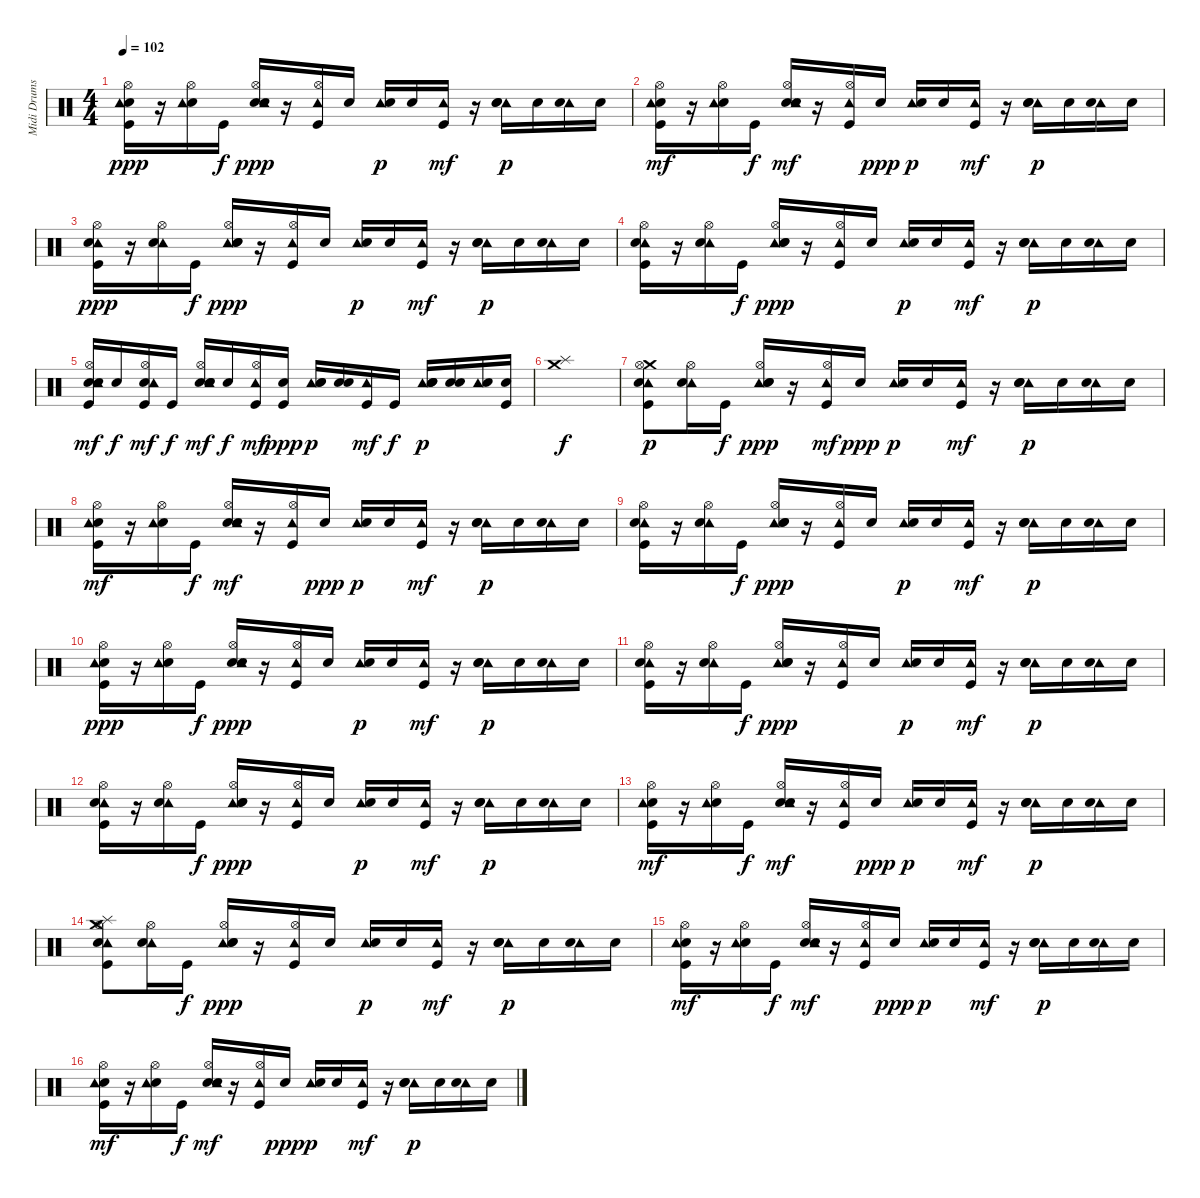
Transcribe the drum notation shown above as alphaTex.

\track ("Midi Drums" "Midi Drums") {instrument percussion}
\staff {score}
\articulation defaults
\ts (4 4)
\tempo 102
\clef neutral
\ks c
("Electric Snare (hit)" "Tambourine (hit)" "Hi-Hat (open)" "Kick (hit)").16{dy ppp} r.16 ("Electric Snare (hit)" "Tambourine (hit)" "Hi-Hat (open)").16 "Kick (hit)".16{dy f} ("Electric Snare (hit)" "Tambourine (hit)" "Hi-Hat (open)" "Snare (hit) 2").16{dy ppp} r.16 ("Tambourine (hit)" "Hi-Hat (open)" "Kick (hit)").16 "Electric Snare (hit)".16 ("Tambourine (hit)" "Electric Snare (hit)").16{dy p} "Electric Snare (hit)".16 ("Tambourine (hit)" "Kick (hit)").16{dy mf} r.16 ("Tambourine (hit)" "Electric Snare (hit)" "Snare (hit) 2").16{dy p} "Electric Snare (hit)".16 ("Tambourine (hit)" "Electric Snare (hit)").16 "Electric Snare (hit)".16 |
("Electric Snare (hit)" "Hi-Hat (open)" "Kick (hit)" "Tambourine (hit)").16{dy mf} r.16 ("Electric Snare (hit)" "Hi-Hat (open)" "Tambourine (hit)").16 "Kick (hit)".16{dy f} ("Electric Snare (hit)" "Hi-Hat (open)" "Snare (hit) 2" "Tambourine (hit)").16{dy mf} r.16 ("Hi-Hat (open)" "Kick (hit)" "Tambourine (hit)").16 "Electric Snare (hit)".16{dy ppp} ("Tambourine (hit)" "Electric Snare (hit)").16{dy p} "Electric Snare (hit)".16 ("Kick (hit)" "Tambourine (hit)").16{dy mf} r.16 ("Tambourine (hit)" "Electric Snare (hit)" "Snare (hit) 2").16{dy p} "Electric Snare (hit)".16 ("Tambourine (hit)" "Electric Snare (hit)").16 "Electric Snare (hit)".16 |
("Tambourine (hit)" "Kick (hit)" "Electric Snare (hit)" "Hi-Hat (open)").16{dy ppp} r.16 ("Tambourine (hit)" "Electric Snare (hit)" "Hi-Hat (open)").16 "Kick (hit)".16{dy f} ("Tambourine (hit)" "Snare (hit) 2" "Electric Snare (hit)" "Hi-Hat (open)").16{dy ppp} r.16 ("Tambourine (hit)" "Kick (hit)" "Hi-Hat (open)").16 "Electric Snare (hit)".16 ("Tambourine (hit)" "Electric Snare (hit)").16{dy p} "Electric Snare (hit)".16 ("Tambourine (hit)" "Kick (hit)").16{dy mf} r.16 ("Tambourine (hit)" "Electric Snare (hit)" "Snare (hit) 2").16{dy p} "Electric Snare (hit)".16 ("Tambourine (hit)" "Electric Snare (hit)").16 "Electric Snare (hit)".16 |
("Tambourine (hit)" "Kick (hit)" "Hi-Hat (open)" "Electric Snare (hit)").16 r.16 ("Tambourine (hit)" "Hi-Hat (open)" "Electric Snare (hit)").16 "Kick (hit)".16{dy f} ("Tambourine (hit)" "Snare (hit) 2" "Hi-Hat (open)" "Electric Snare (hit)").16{dy ppp} r.16 ("Tambourine (hit)" "Kick (hit)" "Hi-Hat (open)").16 "Electric Snare (hit)".16 ("Tambourine (hit)" "Electric Snare (hit)").16{dy p} "Electric Snare (hit)".16 ("Tambourine (hit)" "Kick (hit)").16{dy mf} r.16 ("Tambourine (hit)" "Electric Snare (hit)" "Snare (hit) 2").16{dy p} "Electric Snare (hit)".16 ("Tambourine (hit)" "Electric Snare (hit)").16 "Electric Snare (hit)".16 |
("Hi-Hat (open)" "Electric Snare (hit)" "Tambourine (hit)" "Kick (hit)" "Snare (hit) 2").16{dy mf} "Snare (hit) 2".16{dy f} ("Kick (hit)" "Hi-Hat (open)" "Electric Snare (hit)" "Tambourine (hit)").16{dy mf} "Kick (hit)".16{dy f} ("Hi-Hat (open)" "Electric Snare (hit)" "Tambourine (hit)" "Snare (hit) 2" "Snare (hit) 2").16{dy mf} "Snare (hit) 2".16{dy f} ("Kick (hit)" "Hi-Hat (open)" "Tambourine (hit)").16{dy mf} ("Kick (hit)" "Electric Snare (hit)").16{dy ppp} ("Tambourine (hit)" "Snare (hit) 2" "Electric Snare (hit)").16{dy p} ("Snare (hit) 2" "Electric Snare (hit)").16 ("Tambourine (hit)" "Kick (hit)").16{dy mf} "Kick (hit)".16{dy f} ("Tambourine (hit)" "Snare (hit) 2" "Electric Snare (hit)" "Snare (hit) 2").16{dy p} ("Snare (hit) 2" "Electric Snare (hit)").16 ("Tambourine (hit)" "Electric Snare (hit)").16 ("Kick (hit)" "Electric Snare (hit)").16 |
("Splash (hit)" "Crash medium (hit)").1{dy f} |
("Crash medium (hit)" "Hi-Hat (open)" "Tambourine (hit)" "Kick (hit)" "Electric Snare (hit)").8{dy p} ("Hi-Hat (open)" "Tambourine (hit)" "Electric Snare (hit)").16 "Kick (hit)".16{dy f} ("Hi-Hat (open)" "Tambourine (hit)" "Snare (hit) 2" "Electric Snare (hit)").16{dy ppp} r.16 ("Hi-Hat (open)" "Tambourine (hit)" "Kick (hit)").16{dy mf} "Electric Snare (hit)".16{dy ppp} ("Tambourine (hit)" "Electric Snare (hit)").16{dy p} "Electric Snare (hit)".16 ("Tambourine (hit)" "Kick (hit)").16{dy mf} r.16 ("Tambourine (hit)" "Electric Snare (hit)" "Snare (hit) 2").16{dy p} "Electric Snare (hit)".16 ("Tambourine (hit)" "Electric Snare (hit)").16 "Electric Snare (hit)".16 |
("Hi-Hat (open)" "Electric Snare (hit)" "Tambourine (hit)" "Kick (hit)").16{dy mf} r.16 ("Hi-Hat (open)" "Electric Snare (hit)" "Tambourine (hit)").16 "Kick (hit)".16{dy f} ("Hi-Hat (open)" "Electric Snare (hit)" "Tambourine (hit)" "Snare (hit) 2").16{dy mf} r.16 ("Hi-Hat (open)" "Tambourine (hit)" "Kick (hit)").16 "Electric Snare (hit)".16{dy ppp} ("Tambourine (hit)" "Electric Snare (hit)").16{dy p} "Electric Snare (hit)".16 ("Tambourine (hit)" "Kick (hit)").16{dy mf} r.16 ("Tambourine (hit)" "Electric Snare (hit)" "Snare (hit) 2").16{dy p} "Electric Snare (hit)".16 ("Tambourine (hit)" "Electric Snare (hit)").16 "Electric Snare (hit)".16 |
("Tambourine (hit)" "Hi-Hat (open)" "Kick (hit)" "Electric Snare (hit)").16 r.16 ("Tambourine (hit)" "Hi-Hat (open)" "Electric Snare (hit)").16 "Kick (hit)".16{dy f} ("Tambourine (hit)" "Hi-Hat (open)" "Snare (hit) 2" "Electric Snare (hit)").16{dy ppp} r.16 ("Tambourine (hit)" "Hi-Hat (open)" "Kick (hit)").16 "Electric Snare (hit)".16 ("Tambourine (hit)" "Electric Snare (hit)").16{dy p} "Electric Snare (hit)".16 ("Tambourine (hit)" "Kick (hit)").16{dy mf} r.16 ("Tambourine (hit)" "Electric Snare (hit)" "Snare (hit) 2").16{dy p} "Electric Snare (hit)".16 ("Tambourine (hit)" "Electric Snare (hit)").16 "Electric Snare (hit)".16 |
("Electric Snare (hit)" "Kick (hit)" "Tambourine (hit)" "Hi-Hat (open)").16{dy ppp} r.16 ("Electric Snare (hit)" "Tambourine (hit)" "Hi-Hat (open)").16 "Kick (hit)".16{dy f} ("Electric Snare (hit)" "Snare (hit) 2" "Tambourine (hit)" "Hi-Hat (open)").16{dy ppp} r.16 ("Kick (hit)" "Tambourine (hit)" "Hi-Hat (open)").16 "Electric Snare (hit)".16 ("Tambourine (hit)" "Electric Snare (hit)").16{dy p} "Electric Snare (hit)".16 ("Kick (hit)" "Tambourine (hit)").16{dy mf} r.16 ("Tambourine (hit)" "Electric Snare (hit)" "Snare (hit) 2").16{dy p} "Electric Snare (hit)".16 ("Tambourine (hit)" "Electric Snare (hit)").16 "Electric Snare (hit)".16 |
("Tambourine (hit)" "Hi-Hat (open)" "Kick (hit)" "Electric Snare (hit)").16 r.16 ("Tambourine (hit)" "Hi-Hat (open)" "Electric Snare (hit)").16 "Kick (hit)".16{dy f} ("Tambourine (hit)" "Hi-Hat (open)" "Snare (hit) 2" "Electric Snare (hit)").16{dy ppp} r.16 ("Tambourine (hit)" "Hi-Hat (open)" "Kick (hit)").16 "Electric Snare (hit)".16 ("Tambourine (hit)" "Electric Snare (hit)").16{dy p} "Electric Snare (hit)".16 ("Tambourine (hit)" "Kick (hit)").16{dy mf} r.16 ("Tambourine (hit)" "Electric Snare (hit)" "Snare (hit) 2").16{dy p} "Electric Snare (hit)".16 ("Tambourine (hit)" "Electric Snare (hit)").16 "Electric Snare (hit)".16 |
("Tambourine (hit)" "Kick (hit)" "Hi-Hat (open)" "Electric Snare (hit)").16 r.16 ("Tambourine (hit)" "Hi-Hat (open)" "Electric Snare (hit)").16 "Kick (hit)".16{dy f} ("Tambourine (hit)" "Snare (hit) 2" "Hi-Hat (open)" "Electric Snare (hit)").16{dy ppp} r.16 ("Tambourine (hit)" "Kick (hit)" "Hi-Hat (open)").16 "Electric Snare (hit)".16 ("Tambourine (hit)" "Electric Snare (hit)").16{dy p} "Electric Snare (hit)".16 ("Tambourine (hit)" "Kick (hit)").16{dy mf} r.16 ("Tambourine (hit)" "Electric Snare (hit)" "Snare (hit) 2").16{dy p} "Electric Snare (hit)".16 ("Tambourine (hit)" "Electric Snare (hit)").16 "Electric Snare (hit)".16 |
("Kick (hit)" "Electric Snare (hit)" "Hi-Hat (open)" "Tambourine (hit)").16{dy mf} r.16 ("Electric Snare (hit)" "Hi-Hat (open)" "Tambourine (hit)").16 "Kick (hit)".16{dy f} ("Snare (hit) 2" "Electric Snare (hit)" "Hi-Hat (open)" "Tambourine (hit)").16{dy mf} r.16 ("Kick (hit)" "Hi-Hat (open)" "Tambourine (hit)").16 "Electric Snare (hit)".16{dy ppp} ("Tambourine (hit)" "Electric Snare (hit)").16{dy p} "Electric Snare (hit)".16 ("Kick (hit)" "Tambourine (hit)").16{dy mf} r.16 ("Tambourine (hit)" "Electric Snare (hit)" "Snare (hit) 2").16{dy p} "Electric Snare (hit)".16 ("Tambourine (hit)" "Electric Snare (hit)").16 "Electric Snare (hit)".16 |
("Tambourine (hit)" "Hi-Hat (open)" "Electric Snare (hit)" "Splash (hit)" "Crash medium (hit)" "Kick (hit)").8 ("Tambourine (hit)" "Hi-Hat (open)" "Electric Snare (hit)").16 "Kick (hit)".16{dy f} ("Tambourine (hit)" "Hi-Hat (open)" "Electric Snare (hit)" "Snare (hit) 2").16{dy ppp} r.16 ("Tambourine (hit)" "Hi-Hat (open)" "Kick (hit)").16 "Electric Snare (hit)".16 ("Tambourine (hit)" "Electric Snare (hit)").16{dy p} "Electric Snare (hit)".16 ("Tambourine (hit)" "Kick (hit)").16{dy mf} r.16 ("Tambourine (hit)" "Electric Snare (hit)" "Snare (hit) 2").16{dy p} "Electric Snare (hit)".16 ("Tambourine (hit)" "Electric Snare (hit)").16 "Electric Snare (hit)".16 |
("Kick (hit)" "Hi-Hat (open)" "Electric Snare (hit)" "Tambourine (hit)").16{dy mf} r.16 ("Hi-Hat (open)" "Electric Snare (hit)" "Tambourine (hit)").16 "Kick (hit)".16{dy f} ("Snare (hit) 2" "Hi-Hat (open)" "Electric Snare (hit)" "Tambourine (hit)").16{dy mf} r.16 ("Kick (hit)" "Hi-Hat (open)" "Tambourine (hit)").16 "Electric Snare (hit)".16{dy ppp} ("Tambourine (hit)" "Electric Snare (hit)").16{dy p} "Electric Snare (hit)".16 ("Kick (hit)" "Tambourine (hit)").16{dy mf} r.16 ("Tambourine (hit)" "Electric Snare (hit)" "Snare (hit) 2").16{dy p} "Electric Snare (hit)".16 ("Tambourine (hit)" "Electric Snare (hit)").16 "Electric Snare (hit)".16 |
("Electric Snare (hit)" "Hi-Hat (open)" "Kick (hit)" "Tambourine (hit)").16{dy mf} r.16 ("Electric Snare (hit)" "Hi-Hat (open)" "Tambourine (hit)").16 "Kick (hit)".16{dy f} ("Electric Snare (hit)" "Hi-Hat (open)" "Snare (hit) 2" "Tambourine (hit)").16{dy mf} r.16 ("Hi-Hat (open)" "Kick (hit)" "Tambourine (hit)").16 "Electric Snare (hit)".16{dy ppp} ("Tambourine (hit)" "Electric Snare (hit)").16{dy p} "Electric Snare (hit)".16 ("Kick (hit)" "Tambourine (hit)").16{dy mf} r.16 ("Tambourine (hit)" "Electric Snare (hit)" "Snare (hit) 2").16{dy p} "Electric Snare (hit)".16 ("Tambourine (hit)" "Electric Snare (hit)").16 "Electric Snare (hit)".16
